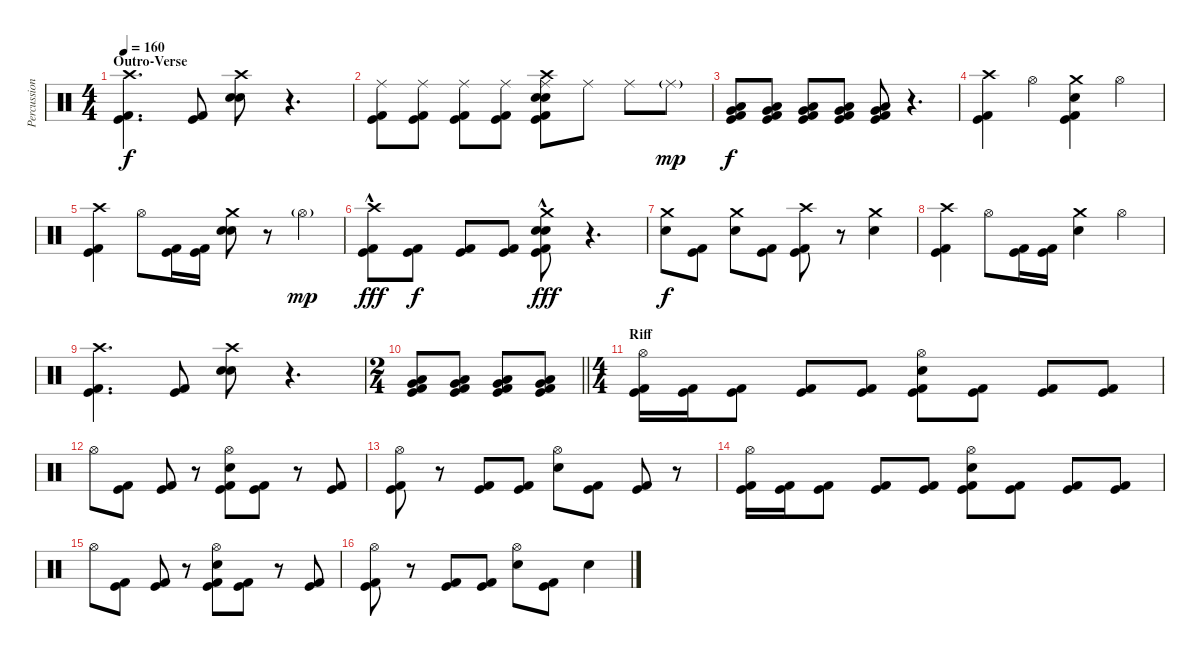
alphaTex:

\track ("Percussion" "Percussion") {instrument percussion}
\staff {score}
\articulation defaults
\ts (4 4)
\section ("" "Outro-Verse")
\tempo 160
\clef neutral
\ks c
("Crash high (hit)" "Kick (hit)" "Kick (hit) 2").4{d dy f} ("Kick (hit)" "Kick (hit) 2").8 ("Crash high (hit)" "Electric Snare (hit)" "Electric Snare (hit)").8 r.4{d} |
("Ride (middle)" "Kick (hit)" "Kick (hit) 2").8 ("Ride (middle)" "Kick (hit)" "Kick (hit) 2").8 ("Ride (middle)" "Kick (hit)" "Kick (hit) 2").8 ("Ride (middle)" "Kick (hit)" "Kick (hit) 2").8 ("Crash high (hit)" "Ride (middle)" "Electric Snare (hit)" "Electric Snare (hit)" "Kick (hit)" "Kick (hit) 2").8 "Ride (middle)".8 "Ride (middle)".8 "Ride (middle)"{g}.8{dy mp} |
("Low Floor Tom (hit)" "Very Low Tom (hit)" "Kick (hit)" "Kick (hit) 2").8{dy f} ("Low Floor Tom (hit)" "Very Low Tom (hit)" "Kick (hit)" "Kick (hit) 2").8 ("Low Floor Tom (hit)" "Very Low Tom (hit)" "Kick (hit)" "Kick (hit) 2").8 ("Low Floor Tom (hit)" "Very Low Tom (hit)" "Kick (hit)" "Kick (hit) 2").8 ("Low Floor Tom (hit)" "Very Low Tom (hit)" "Kick (hit)" "Kick (hit) 2").8 r.4{d} |
("Crash high (hit)" "Kick (hit)" "Kick (hit) 2").4 "Hi-Hat (open)".4 ("Crash medium (hit)" "Electric Snare (hit)" "Kick (hit)" "Kick (hit) 2").4 "Hi-Hat (open)".4 |
("Crash high (hit)" "Kick (hit)" "Kick (hit) 2").4 "Hi-Hat (open)".8 ("Kick (hit)" "Kick (hit) 2").16 ("Kick (hit)" "Kick (hit) 2").16 ("Crash medium (hit)" "Electric Snare (hit)" "Electric Snare (hit)").8 r.8 "Hi-Hat (open)"{g}.4{dy mp} |
("Crash high (hit)"{hac} "Kick (hit)" "Kick (hit) 2").8{dy fff} ("Kick (hit)" "Kick (hit) 2").8{dy f} ("Kick (hit)" "Kick (hit) 2").8 ("Kick (hit)" "Kick (hit) 2").8 ("Crash medium (hit)"{hac} "Electric Snare (hit)" "Electric Snare (hit)" "Kick (hit)" "Kick (hit) 2").8{dy fff} r.4{d} |
("Crash medium (hit)" "Electric Snare (hit)").8{dy f} ("Kick (hit)" "Kick (hit) 2").8 ("Crash medium (hit)" "Electric Snare (hit)").8 ("Kick (hit)" "Kick (hit) 2").8 ("Crash high (hit)" "Kick (hit)" "Kick (hit) 2").8 r.8 ("Crash medium (hit)" "Electric Snare (hit)").4 |
("Crash high (hit)" "Kick (hit)" "Kick (hit) 2").4 "Hi-Hat (open)".8 ("Kick (hit)" "Kick (hit) 2").16 ("Kick (hit)" "Kick (hit) 2").16 ("Crash medium (hit)" "Electric Snare (hit)").4 "Hi-Hat (open)".4 |
("Crash high (hit)" "Kick (hit)" "Kick (hit) 2").4{d} ("Kick (hit)" "Kick (hit) 2").8 ("Crash high (hit)" "Electric Snare (hit)" "Electric Snare (hit)").8 r.4{d} |
\ts (2 4)
\barLineRight lightlight
("Low Floor Tom (hit)" "Very Low Tom (hit)" "Kick (hit)" "Kick (hit) 2").8 ("Low Floor Tom (hit)" "Very Low Tom (hit)" "Kick (hit)" "Kick (hit) 2").8 ("Low Floor Tom (hit)" "Very Low Tom (hit)" "Kick (hit)" "Kick (hit) 2").8 ("Low Floor Tom (hit)" "Very Low Tom (hit)" "Kick (hit)" "Kick (hit) 2").8 |
\ts (4 4)
\section ("" "Riff")
("Hi-Hat (open)" "Kick (hit)" "Kick (hit) 2").16 ("Kick (hit)" "Kick (hit) 2").16 ("Kick (hit)" "Kick (hit) 2").8 ("Kick (hit)" "Kick (hit) 2").8 ("Kick (hit)" "Kick (hit) 2").8 ("Hi-Hat (open)" "Electric Snare (hit)" "Kick (hit)" "Kick (hit) 2").8 ("Kick (hit)" "Kick (hit) 2").8 ("Kick (hit)" "Kick (hit) 2").8 ("Kick (hit)" "Kick (hit) 2").8 |
"Hi-Hat (open)".8 ("Kick (hit)" "Kick (hit) 2").8 ("Kick (hit)" "Kick (hit) 2").8 r.8 ("Hi-Hat (open)" "Electric Snare (hit)" "Kick (hit)" "Kick (hit) 2").8 ("Kick (hit)" "Kick (hit) 2").8 r.8 ("Kick (hit)" "Kick (hit) 2").8 |
("Hi-Hat (open)" "Kick (hit)" "Kick (hit) 2").8 r.8 ("Kick (hit)" "Kick (hit) 2").8 ("Kick (hit)" "Kick (hit) 2").8 ("Hi-Hat (open)" "Electric Snare (hit)").8 ("Kick (hit)" "Kick (hit) 2").8 ("Kick (hit)" "Kick (hit) 2").8 r.8 |
("Hi-Hat (open)" "Kick (hit)" "Kick (hit) 2").16 ("Kick (hit)" "Kick (hit) 2").16 ("Kick (hit)" "Kick (hit) 2").8 ("Kick (hit)" "Kick (hit) 2").8 ("Kick (hit)" "Kick (hit) 2").8 ("Hi-Hat (open)" "Electric Snare (hit)" "Kick (hit)" "Kick (hit) 2").8 ("Kick (hit)" "Kick (hit) 2").8 ("Kick (hit)" "Kick (hit) 2").8 ("Kick (hit)" "Kick (hit) 2").8 |
"Hi-Hat (open)".8 ("Kick (hit)" "Kick (hit) 2").8 ("Kick (hit)" "Kick (hit) 2").8 r.8 ("Hi-Hat (open)" "Electric Snare (hit)" "Kick (hit)" "Kick (hit) 2").8 ("Kick (hit)" "Kick (hit) 2").8 r.8 ("Kick (hit)" "Kick (hit) 2").8 |
("Hi-Hat (open)" "Kick (hit)" "Kick (hit) 2").8 r.8 ("Kick (hit)" "Kick (hit) 2").8 ("Kick (hit)" "Kick (hit) 2").8 ("Hi-Hat (open)" "Electric Snare (hit)").8 ("Kick (hit)" "Kick (hit) 2").8 "Electric Snare (hit)".4
